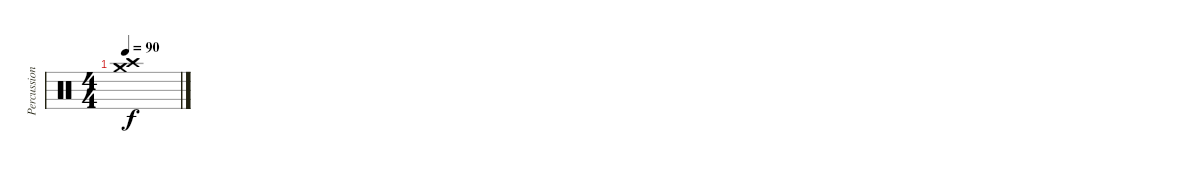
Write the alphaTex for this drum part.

\track ("Percussion" "Percussion") {instrument percussion}
\staff {score}
\articulation defaults
\ts (4 4)
\tempo 90
\clef neutral
\ks c
("Crash high (hit)" "Crash medium (hit)").1{dy f}
